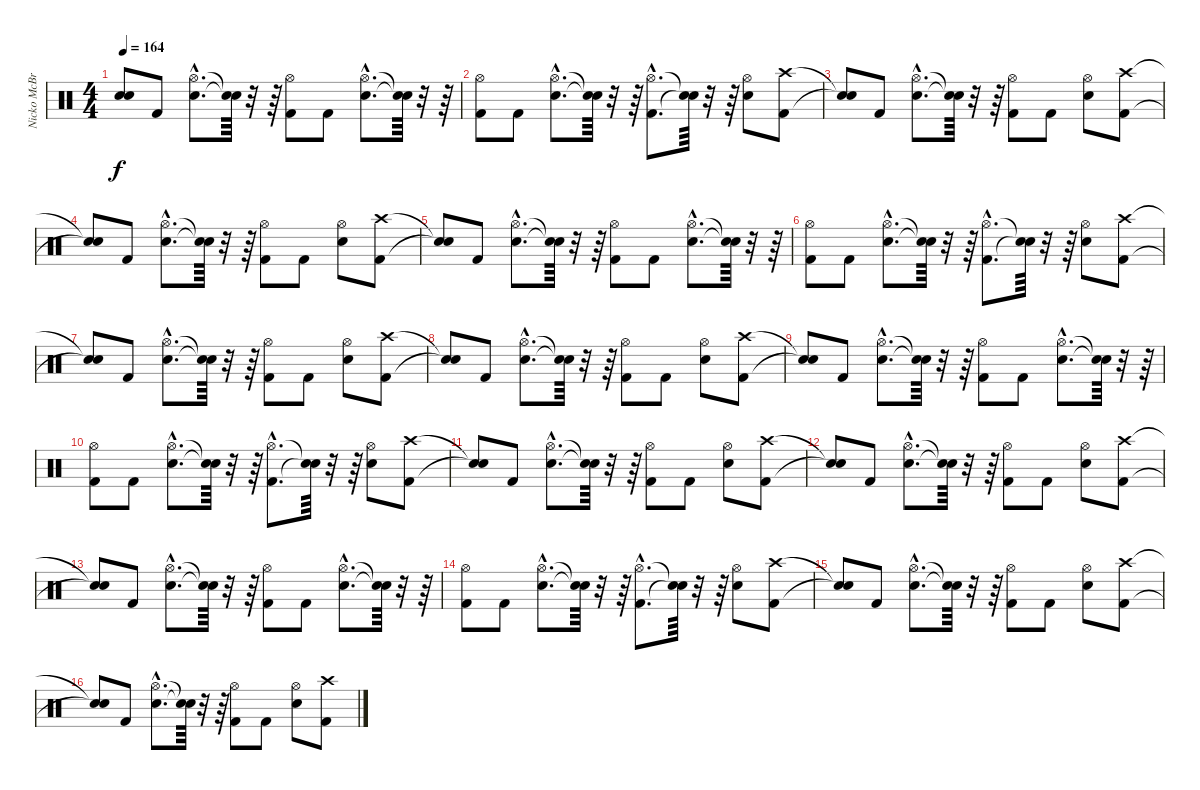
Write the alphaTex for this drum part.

\track ("Nicko McBrian (Drums)" "Nicko McBr") {instrument percussion}
\staff {score}
\articulation defaults
\ts (4 4)
\tempo 164
\clef neutral
\ks c
("Snare (hit)"{t} "Snare (hit)"{t}).8{dy f} "Kick (hit) 2".8 ("Snare (hit) 2"{hac} "Hi-Hat (open)"{hac}).8{d} ("Snare (hit)"{t} "Snare (hit)"{t}).64 r.32 r.64 ("Kick (hit) 2" "Hi-Hat (open)").8 "Kick (hit) 2".8 ("Snare (hit) 2"{hac} "Hi-Hat (open)"{hac}).8{d} ("Snare (hit)"{t} "Snare (hit)"{t}).64 r.32 r.64 |
("Kick (hit) 2" "Hi-Hat (open)").8 "Kick (hit) 2".8 ("Snare (hit) 2"{hac} "Hi-Hat (open)"{hac}).8{d} ("Snare (hit)"{t} "Snare (hit)"{t}).64 r.32 r.64 ("Kick (hit) 2"{hac} "Hi-Hat (open)"{hac}).8{d} ("Snare (hit)"{t} "Snare (hit)"{t}).64 r.32 r.64 ("Snare (hit) 2" "Hi-Hat (open)").8 ("Kick (hit) 2" "Crash high (hit)").8 |
("Snare (hit)"{t} "Snare (hit)"{t}).8 "Kick (hit) 2".8 ("Snare (hit) 2"{hac} "Hi-Hat (open)"{hac}).8{d} ("Snare (hit)"{t} "Snare (hit)"{t}).64 r.32 r.64 ("Kick (hit) 2" "Hi-Hat (open)").8 "Kick (hit) 2".8 ("Snare (hit) 2" "Hi-Hat (open)").8 ("Kick (hit) 2" "Crash high (hit)").8 |
("Snare (hit)"{t} "Snare (hit)"{t}).8 "Kick (hit) 2".8 ("Snare (hit) 2"{hac} "Hi-Hat (open)"{hac}).8{d} ("Snare (hit)"{t} "Snare (hit)"{t}).64 r.32 r.64 ("Kick (hit) 2" "Hi-Hat (open)").8 "Kick (hit) 2".8 ("Snare (hit) 2" "Hi-Hat (open)").8 ("Kick (hit) 2" "Crash high (hit)").8 |
("Snare (hit)"{t} "Snare (hit)"{t}).8 "Kick (hit) 2".8 ("Snare (hit) 2"{hac} "Hi-Hat (open)"{hac}).8{d} ("Snare (hit)"{t} "Snare (hit)"{t}).64 r.32 r.64 ("Kick (hit) 2" "Hi-Hat (open)").8 "Kick (hit) 2".8 ("Snare (hit) 2"{hac} "Hi-Hat (open)"{hac}).8{d} ("Snare (hit)"{t} "Snare (hit)"{t}).64 r.32 r.64 |
("Kick (hit) 2" "Hi-Hat (open)").8 "Kick (hit) 2".8 ("Snare (hit) 2"{hac} "Hi-Hat (open)"{hac}).8{d} ("Snare (hit)"{t} "Snare (hit)"{t}).64 r.32 r.64 ("Kick (hit) 2"{hac} "Hi-Hat (open)"{hac}).8{d} ("Snare (hit)"{t} "Snare (hit)"{t}).64 r.32 r.64 ("Snare (hit) 2" "Hi-Hat (open)").8 ("Kick (hit) 2" "Crash high (hit)").8 |
("Snare (hit)"{t} "Snare (hit)"{t}).8 "Kick (hit) 2".8 ("Snare (hit) 2"{hac} "Hi-Hat (open)"{hac}).8{d} ("Snare (hit)"{t} "Snare (hit)"{t}).64 r.32 r.64 ("Kick (hit) 2" "Hi-Hat (open)").8 "Kick (hit) 2".8 ("Snare (hit) 2" "Hi-Hat (open)").8 ("Kick (hit) 2" "Crash high (hit)").8 |
("Snare (hit)"{t} "Snare (hit)"{t}).8 "Kick (hit) 2".8 ("Snare (hit) 2"{hac} "Hi-Hat (open)"{hac}).8{d} ("Snare (hit)"{t} "Snare (hit)"{t}).64 r.32 r.64 ("Kick (hit) 2" "Hi-Hat (open)").8 "Kick (hit) 2".8 ("Snare (hit) 2" "Hi-Hat (open)").8 ("Kick (hit) 2" "Crash high (hit)").8 |
("Snare (hit)"{t} "Snare (hit)"{t}).8 "Kick (hit) 2".8 ("Snare (hit) 2"{hac} "Hi-Hat (open)"{hac}).8{d} ("Snare (hit)"{t} "Snare (hit)"{t}).64 r.32 r.64 ("Kick (hit) 2" "Hi-Hat (open)").8 "Kick (hit) 2".8 ("Snare (hit) 2"{hac} "Hi-Hat (open)"{hac}).8{d} ("Snare (hit)"{t} "Snare (hit)"{t}).64 r.32 r.64 |
("Kick (hit) 2" "Hi-Hat (open)").8 "Kick (hit) 2".8 ("Snare (hit) 2"{hac} "Hi-Hat (open)"{hac}).8{d} ("Snare (hit)"{t} "Snare (hit)"{t}).64 r.32 r.64 ("Kick (hit) 2"{hac} "Hi-Hat (open)"{hac}).8{d} ("Snare (hit)"{t} "Snare (hit)"{t}).64 r.32 r.64 ("Snare (hit) 2" "Hi-Hat (open)").8 ("Kick (hit) 2" "Crash high (hit)").8 |
("Snare (hit)"{t} "Snare (hit)"{t}).8 "Kick (hit) 2".8 ("Snare (hit) 2"{hac} "Hi-Hat (open)"{hac}).8{d} ("Snare (hit)"{t} "Snare (hit)"{t}).64 r.32 r.64 ("Kick (hit) 2" "Hi-Hat (open)").8 "Kick (hit) 2".8 ("Snare (hit) 2" "Hi-Hat (open)").8 ("Kick (hit) 2" "Crash high (hit)").8 |
("Snare (hit)"{t} "Snare (hit)"{t}).8 "Kick (hit) 2".8 ("Snare (hit) 2"{hac} "Hi-Hat (open)"{hac}).8{d} ("Snare (hit)"{t} "Snare (hit)"{t}).64 r.32 r.64 ("Kick (hit) 2" "Hi-Hat (open)").8 "Kick (hit) 2".8 ("Snare (hit) 2" "Hi-Hat (open)").8 ("Kick (hit) 2" "Crash high (hit)").8 |
("Snare (hit)"{t} "Snare (hit)"{t}).8 "Kick (hit) 2".8 ("Snare (hit) 2"{hac} "Hi-Hat (open)"{hac}).8{d} ("Snare (hit)"{t} "Snare (hit)"{t}).64 r.32 r.64 ("Kick (hit) 2" "Hi-Hat (open)").8 "Kick (hit) 2".8 ("Snare (hit) 2"{hac} "Hi-Hat (open)"{hac}).8{d} ("Snare (hit)"{t} "Snare (hit)"{t}).64 r.32 r.64 |
("Kick (hit) 2" "Hi-Hat (open)").8 "Kick (hit) 2".8 ("Snare (hit) 2"{hac} "Hi-Hat (open)"{hac}).8{d} ("Snare (hit)"{t} "Snare (hit)"{t}).64 r.32 r.64 ("Kick (hit) 2"{hac} "Hi-Hat (open)"{hac}).8{d} ("Snare (hit)"{t} "Snare (hit)"{t}).64 r.32 r.64 ("Snare (hit) 2" "Hi-Hat (open)").8 ("Kick (hit) 2" "Crash high (hit)").8 |
("Snare (hit)"{t} "Snare (hit)"{t}).8 "Kick (hit) 2".8 ("Snare (hit) 2"{hac} "Hi-Hat (open)"{hac}).8{d} ("Snare (hit)"{t} "Snare (hit)"{t}).64 r.32 r.64 ("Kick (hit) 2" "Hi-Hat (open)").8 "Kick (hit) 2".8 ("Snare (hit) 2" "Hi-Hat (open)").8 ("Kick (hit) 2" "Crash high (hit)").8 |
("Snare (hit)"{t} "Snare (hit)"{t}).8 "Kick (hit) 2".8 ("Snare (hit) 2"{hac} "Hi-Hat (open)"{hac}).8{d} ("Snare (hit)"{t} "Snare (hit)"{t}).64 r.32 r.64 ("Kick (hit) 2" "Hi-Hat (open)").8 "Kick (hit) 2".8 ("Snare (hit) 2" "Hi-Hat (open)").8 ("Kick (hit) 2" "Crash high (hit)").8
